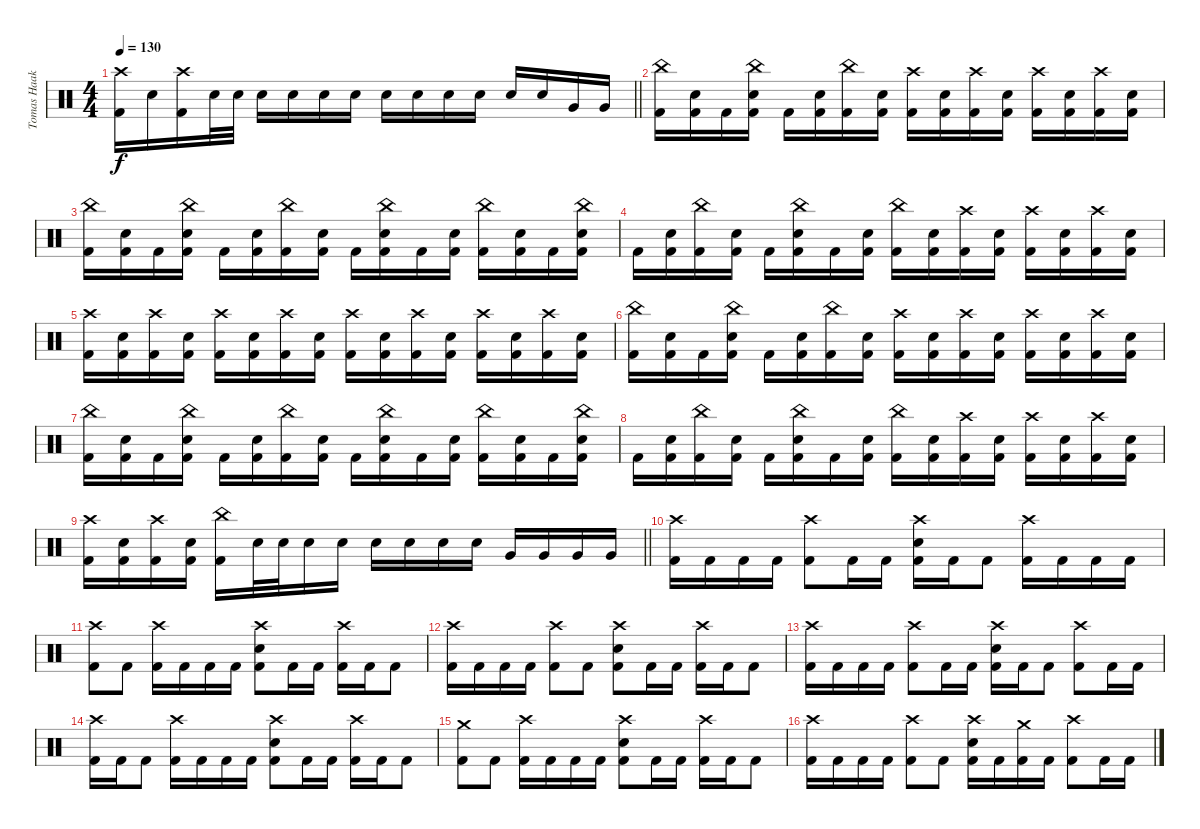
\track ("Tomas Haake" "Tomas Haak") {instrument percussion}
\staff {score}
\articulation defaults
\ts (4 4)
\tempo 130
\clef neutral
\barLineRight lightlight
\ks c
("Crash high (hit)" "Kick (hit) 2").16{dy f} "Electric Snare (hit)".16 ("Crash high (hit)" "Kick (hit) 2").16 "Electric Snare (hit)".32 "Electric Snare (hit)".32 "Electric Snare (hit)".16 "Electric Snare (hit)".16 "Electric Snare (hit)".16 "Electric Snare (hit)".16 "Electric Snare (hit)".16 "Electric Snare (hit)".16 "Electric Snare (hit)".16 "Electric Snare (hit)".16 "Electric Snare (hit)".16 "Electric Snare (hit)".16 "Very Low Tom (hit)".16 "Very Low Tom (hit)".16 |
("China (hit)" "Kick (hit) 2").16 ("Electric Snare (hit)" "Kick (hit) 2").16 "Kick (hit) 2".16 ("China (hit)" "Electric Snare (hit)" "Kick (hit) 2").16 "Kick (hit) 2".16 ("Electric Snare (hit)" "Kick (hit) 2").16 ("China (hit)" "Kick (hit) 2").16 ("Electric Snare (hit)" "Kick (hit) 2").16 ("Crash high (hit)" "Kick (hit) 2").16 ("Electric Snare (hit)" "Kick (hit) 2").16 ("Crash high (hit)" "Kick (hit) 2").16 ("Electric Snare (hit)" "Kick (hit) 2").16 ("Crash high (hit)" "Kick (hit) 2").16 ("Electric Snare (hit)" "Kick (hit) 2").16 ("Crash high (hit)" "Kick (hit) 2").16 ("Electric Snare (hit)" "Kick (hit) 2").16 |
("China (hit)" "Kick (hit) 2").16 ("Electric Snare (hit)" "Kick (hit) 2").16 "Kick (hit) 2".16 ("China (hit)" "Electric Snare (hit)" "Kick (hit) 2").16 "Kick (hit) 2".16 ("Electric Snare (hit)" "Kick (hit) 2").16 ("China (hit)" "Kick (hit) 2").16 ("Electric Snare (hit)" "Kick (hit) 2").16 "Kick (hit) 2".16 ("China (hit)" "Electric Snare (hit)" "Kick (hit) 2").16 "Kick (hit) 2".16 ("Electric Snare (hit)" "Kick (hit) 2").16 ("China (hit)" "Kick (hit) 2").16 ("Electric Snare (hit)" "Kick (hit) 2").16 "Kick (hit) 2".16 ("China (hit)" "Electric Snare (hit)" "Kick (hit) 2").16 |
"Kick (hit) 2".16 ("Electric Snare (hit)" "Kick (hit) 2").16 ("China (hit)" "Kick (hit) 2").16 ("Electric Snare (hit)" "Kick (hit) 2").16 "Kick (hit) 2".16 ("China (hit)" "Electric Snare (hit)" "Kick (hit) 2").16 "Kick (hit) 2".16 ("Electric Snare (hit)" "Kick (hit) 2").16 ("China (hit)" "Kick (hit) 2").16 ("Electric Snare (hit)" "Kick (hit) 2").16 ("Crash high (hit)" "Kick (hit) 2").16 ("Electric Snare (hit)" "Kick (hit) 2").16 ("Crash high (hit)" "Kick (hit) 2").16 ("Electric Snare (hit)" "Kick (hit) 2").16 ("Crash high (hit)" "Kick (hit) 2").16 ("Electric Snare (hit)" "Kick (hit) 2").16 |
("Crash high (hit)" "Kick (hit) 2").16 ("Electric Snare (hit)" "Kick (hit) 2").16 ("Crash high (hit)" "Kick (hit) 2").16 ("Electric Snare (hit)" "Kick (hit) 2").16 ("Crash high (hit)" "Kick (hit) 2").16 ("Electric Snare (hit)" "Kick (hit) 2").16 ("Crash high (hit)" "Kick (hit) 2").16 ("Electric Snare (hit)" "Kick (hit) 2").16 ("Crash high (hit)" "Kick (hit) 2").16 ("Electric Snare (hit)" "Kick (hit) 2").16 ("Crash high (hit)" "Kick (hit) 2").16 ("Electric Snare (hit)" "Kick (hit) 2").16 ("Crash high (hit)" "Kick (hit) 2").16 ("Electric Snare (hit)" "Kick (hit) 2").16 ("Crash high (hit)" "Kick (hit) 2").16 ("Electric Snare (hit)" "Kick (hit) 2").16 |
("China (hit)" "Kick (hit) 2").16 ("Electric Snare (hit)" "Kick (hit) 2").16 "Kick (hit) 2".16 ("China (hit)" "Electric Snare (hit)" "Kick (hit) 2").16 "Kick (hit) 2".16 ("Electric Snare (hit)" "Kick (hit) 2").16 ("China (hit)" "Kick (hit) 2").16 ("Electric Snare (hit)" "Kick (hit) 2").16 ("Crash high (hit)" "Kick (hit) 2").16 ("Electric Snare (hit)" "Kick (hit) 2").16 ("Crash high (hit)" "Kick (hit) 2").16 ("Electric Snare (hit)" "Kick (hit) 2").16 ("Crash high (hit)" "Kick (hit) 2").16 ("Electric Snare (hit)" "Kick (hit) 2").16 ("Crash high (hit)" "Kick (hit) 2").16 ("Electric Snare (hit)" "Kick (hit) 2").16 |
("China (hit)" "Kick (hit) 2").16 ("Electric Snare (hit)" "Kick (hit) 2").16 "Kick (hit) 2".16 ("China (hit)" "Electric Snare (hit)" "Kick (hit) 2").16 "Kick (hit) 2".16 ("Electric Snare (hit)" "Kick (hit) 2").16 ("China (hit)" "Kick (hit) 2").16 ("Electric Snare (hit)" "Kick (hit) 2").16 "Kick (hit) 2".16 ("China (hit)" "Electric Snare (hit)" "Kick (hit) 2").16 "Kick (hit) 2".16 ("Electric Snare (hit)" "Kick (hit) 2").16 ("China (hit)" "Kick (hit) 2").16 ("Electric Snare (hit)" "Kick (hit) 2").16 "Kick (hit) 2".16 ("China (hit)" "Electric Snare (hit)" "Kick (hit) 2").16 |
"Kick (hit) 2".16 ("Electric Snare (hit)" "Kick (hit) 2").16 ("China (hit)" "Kick (hit) 2").16 ("Electric Snare (hit)" "Kick (hit) 2").16 "Kick (hit) 2".16 ("China (hit)" "Electric Snare (hit)" "Kick (hit) 2").16 "Kick (hit) 2".16 ("Electric Snare (hit)" "Kick (hit) 2").16 ("China (hit)" "Kick (hit) 2").16 ("Electric Snare (hit)" "Kick (hit) 2").16 ("Crash high (hit)" "Kick (hit) 2").16 ("Electric Snare (hit)" "Kick (hit) 2").16 ("Crash high (hit)" "Kick (hit) 2").16 ("Electric Snare (hit)" "Kick (hit) 2").16 ("Crash high (hit)" "Kick (hit) 2").16 ("Electric Snare (hit)" "Kick (hit) 2").16 |
\barLineRight lightlight
("Crash high (hit)" "Kick (hit) 2").16 ("Electric Snare (hit)" "Kick (hit) 2").16 ("Crash high (hit)" "Kick (hit) 2").16 ("Electric Snare (hit)" "Kick (hit) 2").16 ("China (hit)" "Kick (hit) 2").16 "Electric Snare (hit)".32 "Electric Snare (hit)".32 "Electric Snare (hit)".16 "Electric Snare (hit)".16 "Electric Snare (hit)".16 "Electric Snare (hit)".16 "Electric Snare (hit)".16 "Electric Snare (hit)".16 "Very Low Tom (hit)".16 "Very Low Tom (hit)".16 "Very Low Tom (hit)".16 "Very Low Tom (hit)".16 |
("Crash high (hit)" "Kick (hit) 2").16 "Kick (hit) 2".16 "Kick (hit) 2".16 "Kick (hit) 2".16 ("Crash high (hit)" "Kick (hit) 2").8 "Kick (hit) 2".16 "Kick (hit) 2".16 ("Crash high (hit)" "Electric Snare (hit)" "Kick (hit) 2").16 "Kick (hit) 2".16 "Kick (hit) 2".8 ("Crash high (hit)" "Kick (hit) 2").16 "Kick (hit) 2".16 "Kick (hit) 2".16 "Kick (hit) 2".16 |
("Crash high (hit)" "Kick (hit) 2").8 "Kick (hit) 2".8 ("Crash high (hit)" "Kick (hit) 2").16 "Kick (hit) 2".16 "Kick (hit) 2".16 "Kick (hit) 2".16 ("Crash high (hit)" "Electric Snare (hit)" "Kick (hit) 2").8 "Kick (hit) 2".16 "Kick (hit) 2".16 ("Crash high (hit)" "Kick (hit) 2").16 "Kick (hit) 2".16 "Kick (hit) 2".8 |
("Crash high (hit)" "Kick (hit) 2").16 "Kick (hit) 2".16 "Kick (hit) 2".16 "Kick (hit) 2".16 ("Crash high (hit)" "Kick (hit) 2").8 "Kick (hit) 2".8 ("Crash high (hit)" "Electric Snare (hit)" "Kick (hit) 2").8 "Kick (hit) 2".16 "Kick (hit) 2".16 ("Crash high (hit)" "Kick (hit) 2").16 "Kick (hit) 2".16 "Kick (hit) 2".8 |
("Crash high (hit)" "Kick (hit) 2").16 "Kick (hit) 2".16 "Kick (hit) 2".16 "Kick (hit) 2".16 ("Crash high (hit)" "Kick (hit) 2").8 "Kick (hit) 2".16 "Kick (hit) 2".16 ("Crash high (hit)" "Electric Snare (hit)" "Kick (hit) 2").16 "Kick (hit) 2".16 "Kick (hit) 2".8 ("Crash high (hit)" "Kick (hit) 2").8 "Kick (hit) 2".16 "Kick (hit) 2".16 |
("Crash high (hit)" "Kick (hit) 2").16 "Kick (hit) 2".16 "Kick (hit) 2".8 ("Crash high (hit)" "Kick (hit) 2").16 "Kick (hit) 2".16 "Kick (hit) 2".16 "Kick (hit) 2".16 ("Crash high (hit)" "Electric Snare (hit)" "Kick (hit) 2").8 "Kick (hit) 2".16 "Kick (hit) 2".16 ("Crash high (hit)" "Kick (hit) 2").16 "Kick (hit) 2".16 "Kick (hit) 2".8 |
("Crash medium (hit)" "Kick (hit) 2").8 "Kick (hit) 2".8 ("Crash high (hit)" "Kick (hit) 2").16 "Kick (hit) 2".16 "Kick (hit) 2".16 "Kick (hit) 2".16 ("Crash high (hit)" "Electric Snare (hit)" "Kick (hit) 2").8 "Kick (hit) 2".16 "Kick (hit) 2".16 ("Crash high (hit)" "Kick (hit) 2").16 "Kick (hit) 2".16 "Kick (hit) 2".8 |
("Crash high (hit)" "Kick (hit) 2").16 "Kick (hit) 2".16 "Kick (hit) 2".16 "Kick (hit) 2".16 ("Crash high (hit)" "Kick (hit) 2").8 "Kick (hit) 2".8 ("Crash high (hit)" "Electric Snare (hit)" "Kick (hit) 2").16 "Kick (hit) 2".16 ("Crash medium (hit)" "Kick (hit) 2").16 "Kick (hit) 2".16 ("Crash high (hit)" "Kick (hit) 2").8 "Kick (hit) 2".16 "Kick (hit) 2".16
